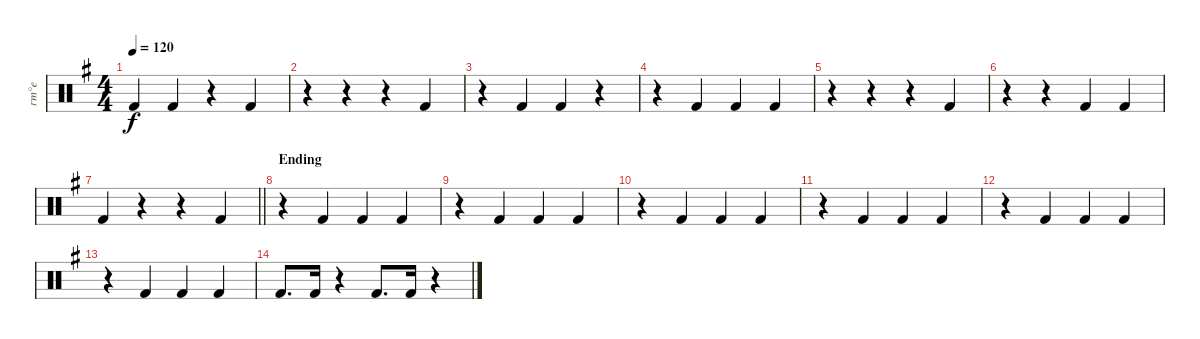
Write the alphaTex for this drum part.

\track ("ґт°е" "ґт°е") {instrument percussion}
\staff {score}
\articulation defaults
\ts (4 4)
\tempo 120
\clef neutral
\ks g "Kick (hit) 2".4{dy f} "Kick (hit) 2".4
r.4 "Kick (hit) 2".4 |
r.4 r.4 r.4 "Kick (hit) 2".4 |
r.4 "Kick (hit) 2".4 "Kick (hit) 2".4 r.4 |
r.4 "Kick (hit) 2".4 "Kick (hit) 2".4 "Kick (hit) 2".4 |
r.4 r.4 r.4 "Kick (hit) 2".4 |
r.4 r.4 "Kick (hit) 2".4 "Kick (hit) 2".4 |
\barLineRight lightlight "Kick (hit) 2".4
r.4 r.4 "Kick (hit) 2".4 |
\section ("" "Ending")
r.4 "Kick (hit) 2".4 "Kick (hit) 2".4 "Kick (hit) 2".4 |
r.4 "Kick (hit) 2".4 "Kick (hit) 2".4 "Kick (hit) 2".4 |
r.4 "Kick (hit) 2".4 "Kick (hit) 2".4 "Kick (hit) 2".4 |
r.4 "Kick (hit) 2".4 "Kick (hit) 2".4 "Kick (hit) 2".4 |
r.4 "Kick (hit) 2".4 "Kick (hit) 2".4 "Kick (hit) 2".4 |
r.4 "Kick (hit) 2".4 "Kick (hit) 2".4 "Kick (hit) 2".4 |
"Kick (hit) 2".8{d} "Kick (hit) 2".16 r.4 "Kick (hit) 2".8{d} "Kick (hit) 2".16 r.4
